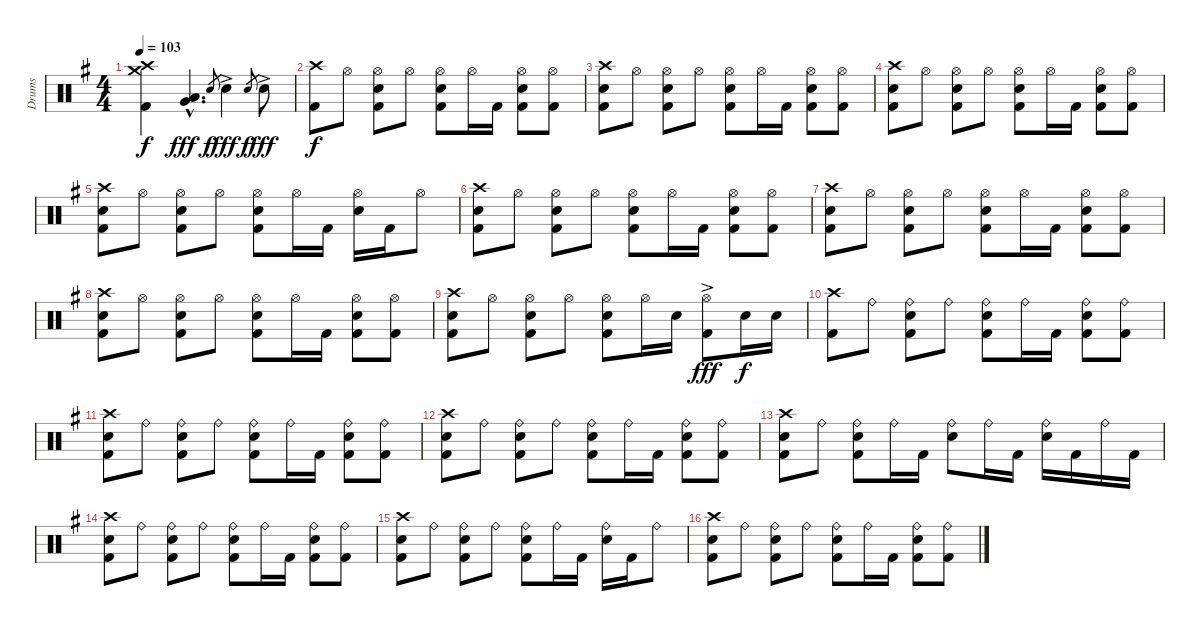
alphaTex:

\track ("Drums" "Drums") {instrument percussion}
\staff {score}
\articulation defaults
\ts (4 4)
\tempo 103
\clef neutral
\ks eminor
("Crash high (hit)" "Crash medium (hit)" "Kick (hit) 2").4{dy f} ("Very Low Tom (hit)"{hac} "Low Floor Tom (hit)"{hac}).4{d dy fff} "Snare (hit) 2".8{gr dy f} "Snare (hit) 2"{ac}.4{dy fff} "Snare (hit) 2".8{gr dy f} "Snare (hit) 2"{ac}.8{dy fff} |
("Crash high (hit)" "Kick (hit) 2").8{dy f} "Hi-Hat (open)".8 ("Hi-Hat (open)" "Snare (hit) 2" "Kick (hit) 2").8 "Hi-Hat (open)".8 ("Hi-Hat (open)" "Snare (hit) 2" "Kick (hit) 2").8 "Hi-Hat (open)".16 "Kick (hit) 2".16 ("Hi-Hat (open)" "Snare (hit) 2" "Kick (hit) 2").8 ("Hi-Hat (open)" "Kick (hit) 2").8 |
("Crash high (hit)" "Snare (hit) 2" "Kick (hit) 2").8 "Hi-Hat (open)".8 ("Hi-Hat (open)" "Snare (hit) 2" "Kick (hit) 2").8 "Hi-Hat (open)".8 ("Hi-Hat (open)" "Snare (hit) 2" "Kick (hit) 2").8 "Hi-Hat (open)".16 "Kick (hit) 2".16 ("Hi-Hat (open)" "Snare (hit) 2" "Kick (hit) 2").8 ("Hi-Hat (open)" "Kick (hit) 2").8 |
("Crash high (hit)" "Snare (hit) 2" "Kick (hit) 2").8 "Hi-Hat (open)".8 ("Hi-Hat (open)" "Snare (hit) 2" "Kick (hit) 2").8 "Hi-Hat (open)".8 ("Hi-Hat (open)" "Snare (hit) 2" "Kick (hit) 2").8 "Hi-Hat (open)".16 "Kick (hit) 2".16 ("Hi-Hat (open)" "Snare (hit) 2" "Kick (hit) 2").8 ("Hi-Hat (open)" "Kick (hit) 2").8 |
("Crash high (hit)" "Snare (hit) 2" "Kick (hit) 2").8 "Hi-Hat (open)".8 ("Hi-Hat (open)" "Snare (hit) 2" "Kick (hit) 2").8 "Hi-Hat (open)".8 ("Hi-Hat (open)" "Snare (hit) 2" "Kick (hit) 2").8 "Hi-Hat (open)".16 "Kick (hit) 2".16 ("Hi-Hat (open)" "Snare (hit) 2").16 "Kick (hit) 2".16 "Hi-Hat (open)".8 |
("Crash high (hit)" "Snare (hit) 2" "Kick (hit) 2").8 "Hi-Hat (open)".8 ("Hi-Hat (open)" "Snare (hit) 2" "Kick (hit) 2").8 "Hi-Hat (open)".8 ("Hi-Hat (open)" "Snare (hit) 2" "Kick (hit) 2").8 "Hi-Hat (open)".16 "Kick (hit) 2".16 ("Hi-Hat (open)" "Snare (hit) 2" "Kick (hit) 2").8 ("Hi-Hat (open)" "Kick (hit) 2").8 |
("Crash high (hit)" "Snare (hit) 2" "Kick (hit) 2").8 "Hi-Hat (open)".8 ("Hi-Hat (open)" "Snare (hit) 2" "Kick (hit) 2").8 "Hi-Hat (open)".8 ("Hi-Hat (open)" "Snare (hit) 2" "Kick (hit) 2").8 "Hi-Hat (open)".16 "Kick (hit) 2".16 ("Hi-Hat (open)" "Snare (hit) 2" "Kick (hit) 2").8 ("Hi-Hat (open)" "Kick (hit) 2").8 |
("Crash high (hit)" "Snare (hit) 2" "Kick (hit) 2").8 "Hi-Hat (open)".8 ("Hi-Hat (open)" "Snare (hit) 2" "Kick (hit) 2").8 "Hi-Hat (open)".8 ("Hi-Hat (open)" "Snare (hit) 2" "Kick (hit) 2").8 "Hi-Hat (open)".16 "Kick (hit) 2".16 ("Hi-Hat (open)" "Snare (hit) 2" "Kick (hit) 2").8 ("Hi-Hat (open)" "Kick (hit) 2").8 |
("Crash high (hit)" "Snare (hit) 2" "Kick (hit) 2").8 "Hi-Hat (open)".8 ("Hi-Hat (open)" "Snare (hit) 2" "Kick (hit) 2").8 "Hi-Hat (open)".8 ("Hi-Hat (open)" "Snare (hit) 2" "Kick (hit) 2").8 "Hi-Hat (open)".16 "Snare (hit) 2".16 ("Hi-Hat (open)"{ac} "Kick (hit) 2").8{dy fff} "Snare (hit) 2".16{dy f} "Snare (hit) 2".16 |
("Crash high (hit)" "Kick (hit) 2").8 "Ride (bell)".8 ("Ride (bell)" "Snare (hit) 2" "Kick (hit) 2").8 "Ride (bell)".8 ("Ride (bell)" "Snare (hit) 2" "Kick (hit) 2").8 "Ride (bell)".16 "Kick (hit) 2".16 ("Ride (bell)" "Snare (hit) 2" "Kick (hit) 2").8 ("Ride (bell)" "Kick (hit) 2").8 |
("Crash high (hit)" "Snare (hit) 2" "Kick (hit) 2").8 "Ride (bell)".8 ("Ride (bell)" "Snare (hit) 2" "Kick (hit) 2").8 "Ride (bell)".8 ("Ride (bell)" "Snare (hit) 2" "Kick (hit) 2").8 "Ride (bell)".16 "Kick (hit) 2".16 ("Ride (bell)" "Snare (hit) 2" "Kick (hit) 2").8 ("Ride (bell)" "Kick (hit) 2").8 |
("Crash high (hit)" "Snare (hit) 2" "Kick (hit) 2").8 "Ride (bell)".8 ("Ride (bell)" "Snare (hit) 2" "Kick (hit) 2").8 "Ride (bell)".8 ("Ride (bell)" "Snare (hit) 2" "Kick (hit) 2").8 "Ride (bell)".16 "Kick (hit) 2".16 ("Ride (bell)" "Snare (hit) 2" "Kick (hit) 2").8 ("Ride (bell)" "Kick (hit) 2").8 |
("Crash high (hit)" "Snare (hit) 2" "Kick (hit) 2").8 "Ride (bell)".8 ("Ride (bell)" "Snare (hit) 2" "Kick (hit) 2").8 "Ride (bell)".16 "Kick (hit) 2".16 ("Ride (bell)" "Snare (hit) 2").8 "Ride (bell)".16 "Kick (hit) 2".16 ("Ride (bell)" "Snare (hit) 2").16 "Kick (hit) 2".16 "Ride (bell)".16 "Kick (hit) 2".16 |
("Crash high (hit)" "Snare (hit) 2" "Kick (hit) 2").8 "Ride (bell)".8 ("Ride (bell)" "Snare (hit) 2" "Kick (hit) 2").8 "Ride (bell)".8 ("Ride (bell)" "Snare (hit) 2" "Kick (hit) 2").8 "Ride (bell)".16 "Kick (hit) 2".16 ("Ride (bell)" "Snare (hit) 2" "Kick (hit) 2").8 ("Ride (bell)" "Kick (hit) 2").8 |
("Crash high (hit)" "Snare (hit) 2" "Kick (hit) 2").8 "Ride (bell)".8 ("Ride (bell)" "Snare (hit) 2" "Kick (hit) 2").8 "Ride (bell)".8 ("Ride (bell)" "Snare (hit) 2" "Kick (hit) 2").8 "Ride (bell)".16 "Kick (hit) 2".16 ("Ride (bell)" "Snare (hit) 2").16 "Kick (hit) 2".16 "Ride (bell)".8 |
("Crash high (hit)" "Snare (hit) 2" "Kick (hit) 2").8 "Ride (bell)".8 ("Ride (bell)" "Snare (hit) 2" "Kick (hit) 2").8 "Ride (bell)".8 ("Ride (bell)" "Snare (hit) 2" "Kick (hit) 2").8 "Ride (bell)".16 "Kick (hit) 2".16 ("Ride (bell)" "Snare (hit) 2" "Kick (hit) 2").8 ("Ride (bell)" "Kick (hit) 2").8
